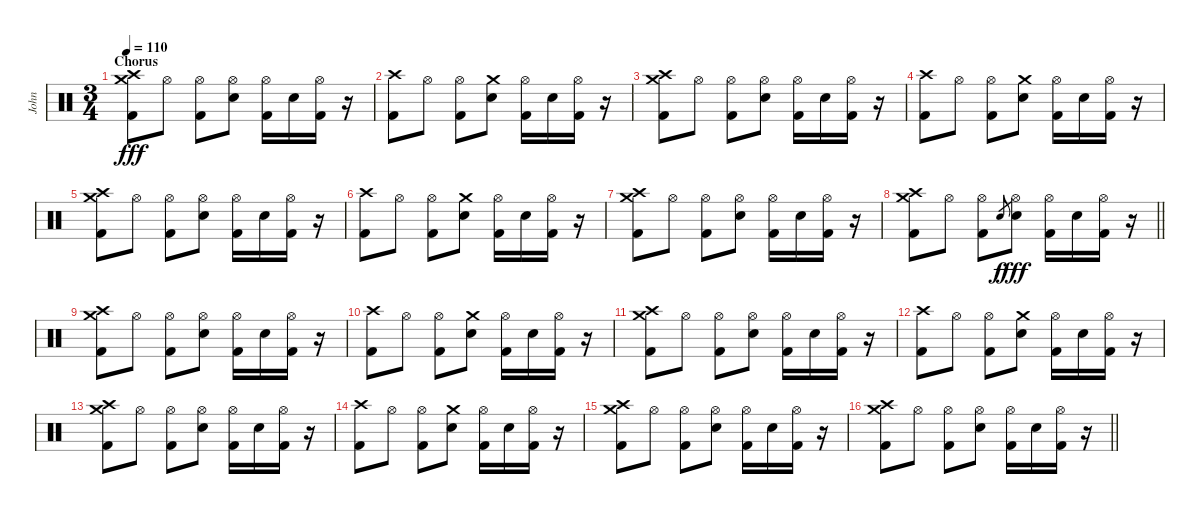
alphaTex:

\track ("John" "John") {instrument percussion}
\staff {score}
\articulation defaults
\ts (3 4)
\section ("" "Chorus")
\tempo 110
\clef neutral
\ks c
("Crash medium (hit)" "Crash high (hit)" "Kick (hit) 2").8{dy fff} "Hi-Hat (open)".8 ("Hi-Hat (open)" "Kick (hit) 2").8 ("Hi-Hat (open)" "Electric Snare (hit)").8 ("Hi-Hat (open)" "Kick (hit) 2").16 "Electric Snare (hit)".16 ("Hi-Hat (open)" "Kick (hit) 2").16 r.16 |
("Crash high (hit)" "Kick (hit) 2").8 "Hi-Hat (open)".8 ("Hi-Hat (open)" "Kick (hit) 2").8 ("Crash medium (hit)" "Electric Snare (hit)").8 ("Hi-Hat (open)" "Kick (hit) 2").16 "Electric Snare (hit)".16 ("Hi-Hat (open)" "Kick (hit) 2").16 r.16 |
("Crash medium (hit)" "Crash high (hit)" "Kick (hit) 2").8 "Hi-Hat (open)".8 ("Hi-Hat (open)" "Kick (hit) 2").8 ("Hi-Hat (open)" "Electric Snare (hit)").8 ("Hi-Hat (open)" "Kick (hit) 2").16 "Electric Snare (hit)".16 ("Hi-Hat (open)" "Kick (hit) 2").16 r.16 |
("Crash high (hit)" "Kick (hit) 2").8 "Hi-Hat (open)".8 ("Hi-Hat (open)" "Kick (hit) 2").8 ("Crash medium (hit)" "Electric Snare (hit)").8 ("Hi-Hat (open)" "Kick (hit) 2").16 "Electric Snare (hit)".16 ("Hi-Hat (open)" "Kick (hit) 2").16 r.16 |
("Crash medium (hit)" "Crash high (hit)" "Kick (hit) 2").8 "Hi-Hat (open)".8 ("Hi-Hat (open)" "Kick (hit) 2").8 ("Hi-Hat (open)" "Electric Snare (hit)").8 ("Hi-Hat (open)" "Kick (hit) 2").16 "Electric Snare (hit)".16 ("Hi-Hat (open)" "Kick (hit) 2").16 r.16 |
("Crash high (hit)" "Kick (hit) 2").8 "Hi-Hat (open)".8 ("Hi-Hat (open)" "Kick (hit) 2").8 ("Crash medium (hit)" "Electric Snare (hit)").8 ("Hi-Hat (open)" "Kick (hit) 2").16 "Electric Snare (hit)".16 ("Hi-Hat (open)" "Kick (hit) 2").16 r.16 |
("Crash medium (hit)" "Crash high (hit)" "Kick (hit) 2").8 "Hi-Hat (open)".8 ("Hi-Hat (open)" "Kick (hit) 2").8 ("Hi-Hat (open)" "Electric Snare (hit)").8 ("Hi-Hat (open)" "Kick (hit) 2").16 "Electric Snare (hit)".16 ("Hi-Hat (open)" "Kick (hit) 2").16 r.16 |
\barLineRight lightlight
("Crash medium (hit)" "Crash high (hit)" "Kick (hit) 2").8 "Hi-Hat (open)".8 ("Hi-Hat (open)" "Kick (hit) 2").8 "Electric Snare (hit)".8{gr dy f} ("Hi-Hat (open)" "Electric Snare (hit)").8{dy fff} ("Hi-Hat (open)" "Kick (hit) 2").16 "Electric Snare (hit)".16 ("Hi-Hat (open)" "Kick (hit) 2").16 r.16 |
("Crash medium (hit)" "Crash high (hit)" "Kick (hit) 2").8 "Hi-Hat (open)".8 ("Hi-Hat (open)" "Kick (hit) 2").8 ("Hi-Hat (open)" "Electric Snare (hit)").8 ("Hi-Hat (open)" "Kick (hit) 2").16 "Electric Snare (hit)".16 ("Hi-Hat (open)" "Kick (hit) 2").16 r.16 |
("Crash high (hit)" "Kick (hit) 2").8 "Hi-Hat (open)".8 ("Hi-Hat (open)" "Kick (hit) 2").8 ("Crash medium (hit)" "Electric Snare (hit)").8 ("Hi-Hat (open)" "Kick (hit) 2").16 "Electric Snare (hit)".16 ("Hi-Hat (open)" "Kick (hit) 2").16 r.16 |
("Crash medium (hit)" "Crash high (hit)" "Kick (hit) 2").8 "Hi-Hat (open)".8 ("Hi-Hat (open)" "Kick (hit) 2").8 ("Hi-Hat (open)" "Electric Snare (hit)").8 ("Hi-Hat (open)" "Kick (hit) 2").16 "Electric Snare (hit)".16 ("Hi-Hat (open)" "Kick (hit) 2").16 r.16 |
("Crash high (hit)" "Kick (hit) 2").8 "Hi-Hat (open)".8 ("Hi-Hat (open)" "Kick (hit) 2").8 ("Crash medium (hit)" "Electric Snare (hit)").8 ("Hi-Hat (open)" "Kick (hit) 2").16 "Electric Snare (hit)".16 ("Hi-Hat (open)" "Kick (hit) 2").16 r.16 |
("Crash medium (hit)" "Crash high (hit)" "Kick (hit) 2").8 "Hi-Hat (open)".8 ("Hi-Hat (open)" "Kick (hit) 2").8 ("Hi-Hat (open)" "Electric Snare (hit)").8 ("Hi-Hat (open)" "Kick (hit) 2").16 "Electric Snare (hit)".16 ("Hi-Hat (open)" "Kick (hit) 2").16 r.16 |
("Crash high (hit)" "Kick (hit) 2").8 "Hi-Hat (open)".8 ("Hi-Hat (open)" "Kick (hit) 2").8 ("Crash medium (hit)" "Electric Snare (hit)").8 ("Hi-Hat (open)" "Kick (hit) 2").16 "Electric Snare (hit)".16 ("Hi-Hat (open)" "Kick (hit) 2").16 r.16 |
("Crash medium (hit)" "Crash high (hit)" "Kick (hit) 2").8 "Hi-Hat (open)".8 ("Hi-Hat (open)" "Kick (hit) 2").8 ("Hi-Hat (open)" "Electric Snare (hit)").8 ("Hi-Hat (open)" "Kick (hit) 2").16 "Electric Snare (hit)".16 ("Hi-Hat (open)" "Kick (hit) 2").16 r.16 |
\barLineRight lightlight
("Crash medium (hit)" "Crash high (hit)" "Kick (hit) 2").8 "Hi-Hat (open)".8 ("Hi-Hat (open)" "Kick (hit) 2").8 ("Hi-Hat (open)" "Electric Snare (hit)").8 ("Hi-Hat (open)" "Kick (hit) 2").16 "Electric Snare (hit)".16 ("Hi-Hat (open)" "Kick (hit) 2").16 r.16
